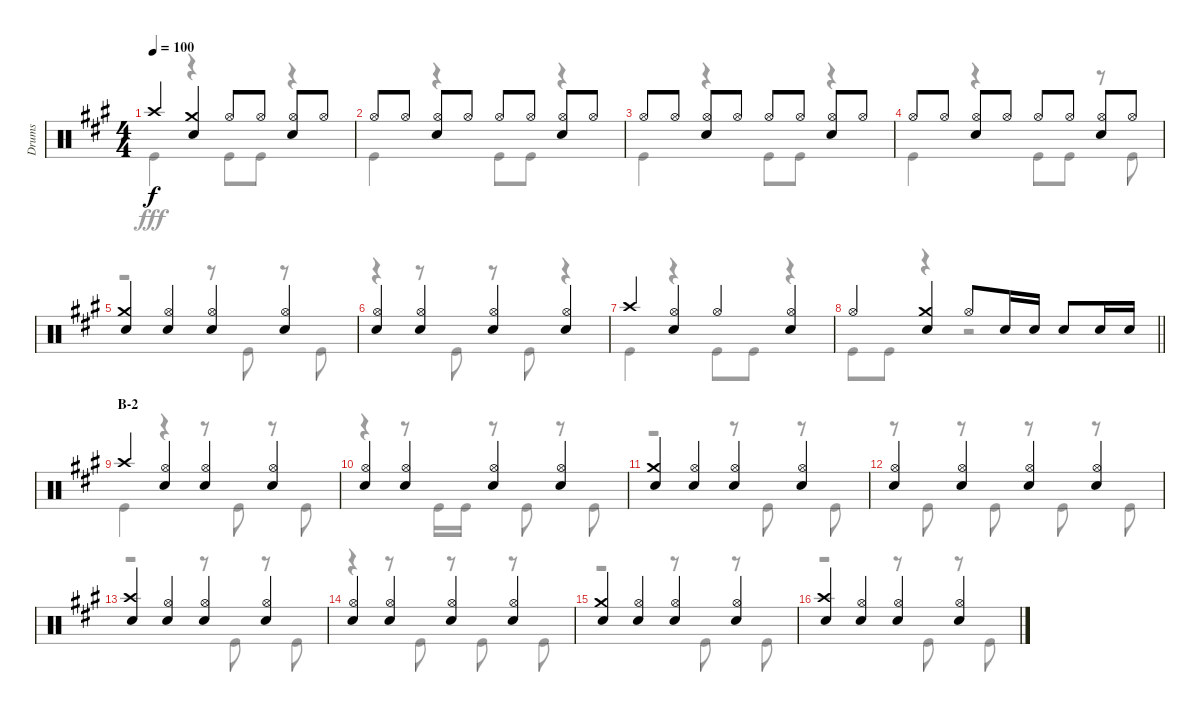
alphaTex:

\track ("Drums" "Drums") {instrument percussion}
\staff {score}
\articulation defaults
\voice
\ts (4 4)
\tempo 100
\clef neutral
\ks a "Crash high (hit)".4{dy f}
("Crash medium (hit)" "Snare (hit) 2").4 "Hi-Hat (open)".8 "Hi-Hat (open)".8 ("Hi-Hat (open)" "Snare (hit) 2").8 "Hi-Hat (open)".8 |
"Hi-Hat (open)".8 "Hi-Hat (open)".8 ("Hi-Hat (open)" "Snare (hit) 2").8 "Hi-Hat (open)".8 "Hi-Hat (open)".8 "Hi-Hat (open)".8 ("Hi-Hat (open)" "Snare (hit) 2").8 "Hi-Hat (open)".8 |
"Hi-Hat (open)".8 "Hi-Hat (open)".8 ("Hi-Hat (open)" "Snare (hit) 2").8 "Hi-Hat (open)".8 "Hi-Hat (open)".8 "Hi-Hat (open)".8 ("Hi-Hat (open)" "Snare (hit) 2").8 "Hi-Hat (open)".8 |
"Hi-Hat (open)".8 "Hi-Hat (open)".8 ("Hi-Hat (open)" "Snare (hit) 2").8 "Hi-Hat (open)".8 "Hi-Hat (open)".8 "Hi-Hat (open)".8 ("Hi-Hat (open)" "Snare (hit) 2").8 "Hi-Hat (open)".8 |
("Crash medium (hit)" "Snare (hit) 2").4 ("Hi-Hat (open)" "Snare (hit) 2").4 ("Hi-Hat (open)" "Snare (hit) 2").4 ("Hi-Hat (open)" "Snare (hit) 2").4 |
("Hi-Hat (open)" "Snare (hit) 2").4 ("Hi-Hat (open)" "Snare (hit) 2").4 ("Hi-Hat (open)" "Snare (hit) 2").4 ("Hi-Hat (open)" "Snare (hit) 2").4 |
"Crash high (hit)".4 ("Hi-Hat (open)" "Snare (hit) 2").4 "Hi-Hat (open)".4 ("Hi-Hat (open)" "Snare (hit) 2").4 |
\barLineRight lightlight "Hi-Hat (open)".4
("Crash medium (hit)" "Snare (hit) 2").4 "Hi-Hat (open)".8 "Snare (hit) 2".16 "Snare (hit) 2".16 "Snare (hit) 2".8 "Snare (hit) 2".16 "Snare (hit) 2".16 |
\section ("" "B-2")
"Crash high (hit)".4 ("Hi-Hat (open)" "Snare (hit) 2").4 ("Hi-Hat (open)" "Snare (hit) 2").4 ("Hi-Hat (open)" "Snare (hit) 2").4 |
("Hi-Hat (open)" "Snare (hit) 2").4 ("Hi-Hat (open)" "Snare (hit) 2").4 ("Hi-Hat (open)" "Snare (hit) 2").4 ("Hi-Hat (open)" "Snare (hit) 2").4 |
("Crash medium (hit)" "Snare (hit) 2").4 ("Hi-Hat (open)" "Snare (hit) 2").4 ("Hi-Hat (open)" "Snare (hit) 2").4 ("Hi-Hat (open)" "Snare (hit) 2").4 |
("Hi-Hat (open)" "Snare (hit) 2").4 ("Hi-Hat (open)" "Snare (hit) 2").4 ("Hi-Hat (open)" "Snare (hit) 2").4 ("Hi-Hat (open)" "Snare (hit) 2").4 |
("Crash high (hit)" "Snare (hit) 2").4 ("Hi-Hat (open)" "Snare (hit) 2").4 ("Hi-Hat (open)" "Snare (hit) 2").4 ("Hi-Hat (open)" "Snare (hit) 2").4 |
("Hi-Hat (open)" "Snare (hit) 2").4 ("Hi-Hat (open)" "Snare (hit) 2").4 ("Hi-Hat (open)" "Snare (hit) 2").4 ("Hi-Hat (open)" "Snare (hit) 2").4 |
("Crash medium (hit)" "Snare (hit) 2").4 ("Hi-Hat (open)" "Snare (hit) 2").4 ("Hi-Hat (open)" "Snare (hit) 2").4 ("Hi-Hat (open)" "Snare (hit) 2").4 |
("Crash high (hit)" "Snare (hit) 2").4 ("Hi-Hat (open)" "Snare (hit) 2").4 ("Hi-Hat (open)" "Snare (hit) 2").4 ("Hi-Hat (open)" "Snare (hit) 2").4
\voice
\clef neutral
\ottava regular
\simile none
\ks a "Kick (hit)".4{dy fff}
r.4 "Kick (hit)".8 "Kick (hit)".8 r.4 |
"Kick (hit)".4 r.4 "Kick (hit)".8 "Kick (hit)".8 r.4 |
"Kick (hit)".4 r.4 "Kick (hit)".8 "Kick (hit)".8 r.4 |
"Kick (hit)".4 r.4 "Kick (hit)".8 "Kick (hit)".8 r.8 "Kick (hit)".8 |
r.2 r.8 "Kick (hit)".8 r.8 "Kick (hit)".8 |
r.4 r.8 "Kick (hit)".8 r.8 "Kick (hit)".8 r.4 |
"Kick (hit)".4 r.4 "Kick (hit)".8 "Kick (hit)".8 r.4 |
\barLineRight lightlight "Kick (hit)".8 "Kick (hit)".8
r.4 r.2 |
"Kick (hit)".4 r.4 r.8 "Kick (hit)".8 r.8 "Kick (hit)".8 |
r.4 r.8 "Kick (hit)".16 "Kick (hit)".16 r.8 "Kick (hit)".8 r.8 "Kick (hit)".8 |
r.2 r.8 "Kick (hit)".8 r.8 "Kick (hit)".8 |
r.8 "Kick (hit)".8 r.8 "Kick (hit)".8 r.8 "Kick (hit)".8 r.8 "Kick (hit)".8 |
r.2 r.8 "Kick (hit)".8 r.8 "Kick (hit)".8 |
r.4 r.8 "Kick (hit)".8 r.8 "Kick (hit)".8 r.8 "Kick (hit)".8 |
r.2 r.8 "Kick (hit)".8 r.8 "Kick (hit)".8 |
r.2 r.8 "Kick (hit)".8 r.8 "Kick (hit)".8
